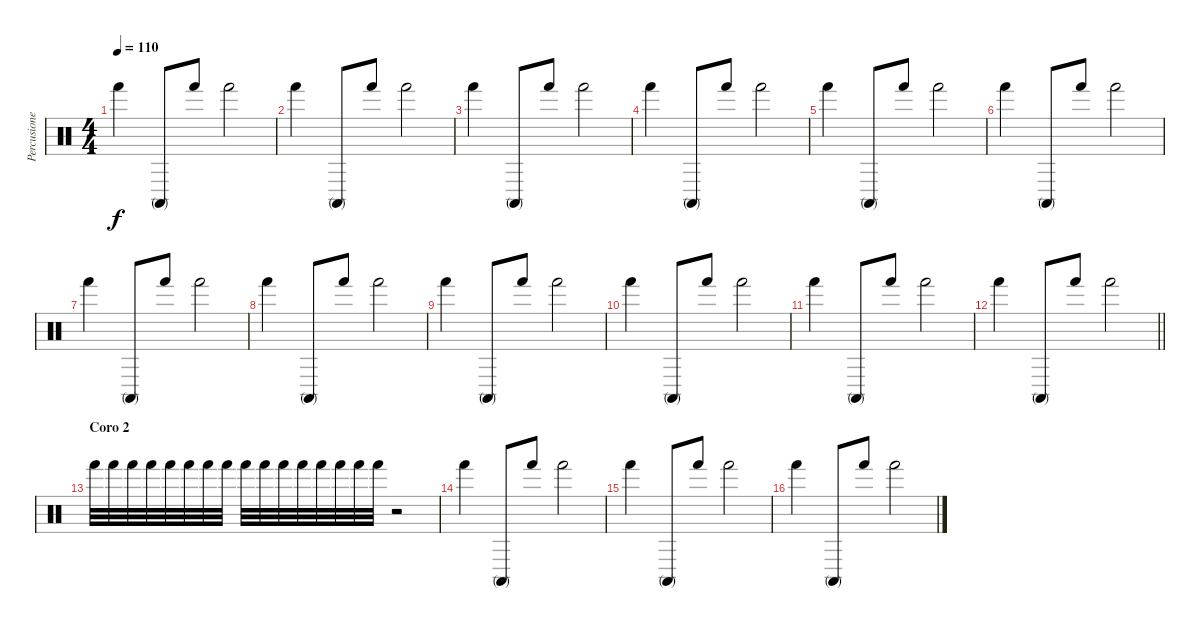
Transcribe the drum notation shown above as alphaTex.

\track ("Percusiones" "Percusione") {instrument percussion}
\staff {score}
\articulation defaults
\ts (4 4)
\tempo 110
\clef neutral
\ks c "Hand (hit)".4{dy f} "Conga high (mute)".8 "Hand (hit)".8 "Hand (hit)".2
|
"Hand (hit)".4 "Conga high (mute)".8 "Hand (hit)".8 "Hand (hit)".2 |
"Hand (hit)".4 "Conga high (mute)".8 "Hand (hit)".8 "Hand (hit)".2 |
"Hand (hit)".4 "Conga high (mute)".8 "Hand (hit)".8 "Hand (hit)".2 |
"Hand (hit)".4 "Conga high (mute)".8 "Hand (hit)".8 "Hand (hit)".2 |
"Hand (hit)".4 "Conga high (mute)".8 "Hand (hit)".8 "Hand (hit)".2 |
"Hand (hit)".4 "Conga high (mute)".8 "Hand (hit)".8 "Hand (hit)".2 |
"Hand (hit)".4 "Conga high (mute)".8 "Hand (hit)".8 "Hand (hit)".2 |
"Hand (hit)".4 "Conga high (mute)".8 "Hand (hit)".8 "Hand (hit)".2 |
"Hand (hit)".4 "Conga high (mute)".8 "Hand (hit)".8 "Hand (hit)".2 |
"Hand (hit)".4 "Conga high (mute)".8 "Hand (hit)".8 "Hand (hit)".2 |
\barLineRight lightlight "Hand (hit)".4 "Conga high (mute)".8 "Hand (hit)".8 "Hand (hit)".2
|
\section ("" "Coro 2")
"Hand (hit)".32 "Hand (hit)".32 "Hand (hit)".32 "Hand (hit)".32 "Hand (hit)".32 "Hand (hit)".32 "Hand (hit)".32 "Hand (hit)".32 "Hand (hit)".32 "Hand (hit)".32 "Hand (hit)".32 "Hand (hit)".32 "Hand (hit)".32 "Hand (hit)".32 "Hand (hit)".32 "Hand (hit)".32 r.2 |
"Hand (hit)".4 "Conga high (mute)".8 "Hand (hit)".8 "Hand (hit)".2 |
"Hand (hit)".4 "Conga high (mute)".8 "Hand (hit)".8 "Hand (hit)".2 |
"Hand (hit)".4 "Conga high (mute)".8 "Hand (hit)".8 "Hand (hit)".2
